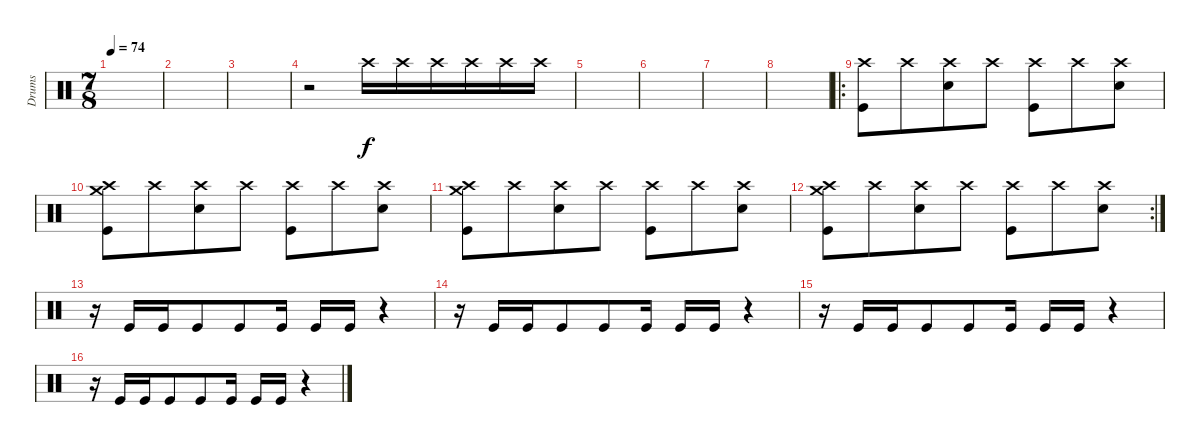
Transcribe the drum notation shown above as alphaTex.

\track ("Drums" "Drums") {instrument percussion}
\staff {score}
\articulation defaults
\ts (7 8)
\tempo 74
\clef neutral
\ks c
|
|
|
r.2{volume 0} "Crash high (hit)".16{volume 16} "Crash high (hit)".16 "Crash high (hit)".16 "Crash high (hit)".16 "Crash high (hit)".16 "Crash high (hit)".16 |
|
|
|
|
\ro
("Crash high (hit)" "Kick (hit)").8 "Crash high (hit)".8 ("Crash high (hit)" "Snare (hit) 2").8 "Crash high (hit)".8 ("Crash high (hit)" "Kick (hit)").8 "Crash high (hit)".8 ("Crash high (hit)" "Snare (hit) 2").8 |
("Crash high (hit)" "Crash medium (hit)" "Kick (hit)").8 "Crash high (hit)".8 ("Crash high (hit)" "Snare (hit) 2").8 "Crash high (hit)".8 ("Crash high (hit)" "Kick (hit)").8 "Crash high (hit)".8 ("Crash high (hit)" "Snare (hit) 2").8 |
("Crash high (hit)" "Crash medium (hit)" "Kick (hit)").8 "Crash high (hit)".8 ("Crash high (hit)" "Snare (hit) 2").8 "Crash high (hit)".8 ("Crash high (hit)" "Kick (hit)").8 "Crash high (hit)".8 ("Crash high (hit)" "Snare (hit) 2").8 |
\rc 2
("Crash high (hit)" "Crash medium (hit)" "Kick (hit)").8 "Crash high (hit)".8 ("Crash high (hit)" "Snare (hit) 2").8 "Crash high (hit)".8 ("Crash high (hit)" "Kick (hit)").8 "Crash high (hit)".8 ("Crash high (hit)" "Snare (hit) 2").8 |
r.16 "Kick (hit)".16 "Kick (hit)".16 "Kick (hit)".8 "Kick (hit)".8 "Kick (hit)".16 "Kick (hit)".16 "Kick (hit)".16 r.4 |
r.16 "Kick (hit)".16 "Kick (hit)".16 "Kick (hit)".8 "Kick (hit)".8 "Kick (hit)".16 "Kick (hit)".16 "Kick (hit)".16 r.4 |
r.16 "Kick (hit)".16 "Kick (hit)".16 "Kick (hit)".8 "Kick (hit)".8 "Kick (hit)".16 "Kick (hit)".16 "Kick (hit)".16 r.4 |
r.16 "Kick (hit)".16 "Kick (hit)".16 "Kick (hit)".8 "Kick (hit)".8 "Kick (hit)".16 "Kick (hit)".16 "Kick (hit)".16 r.4
